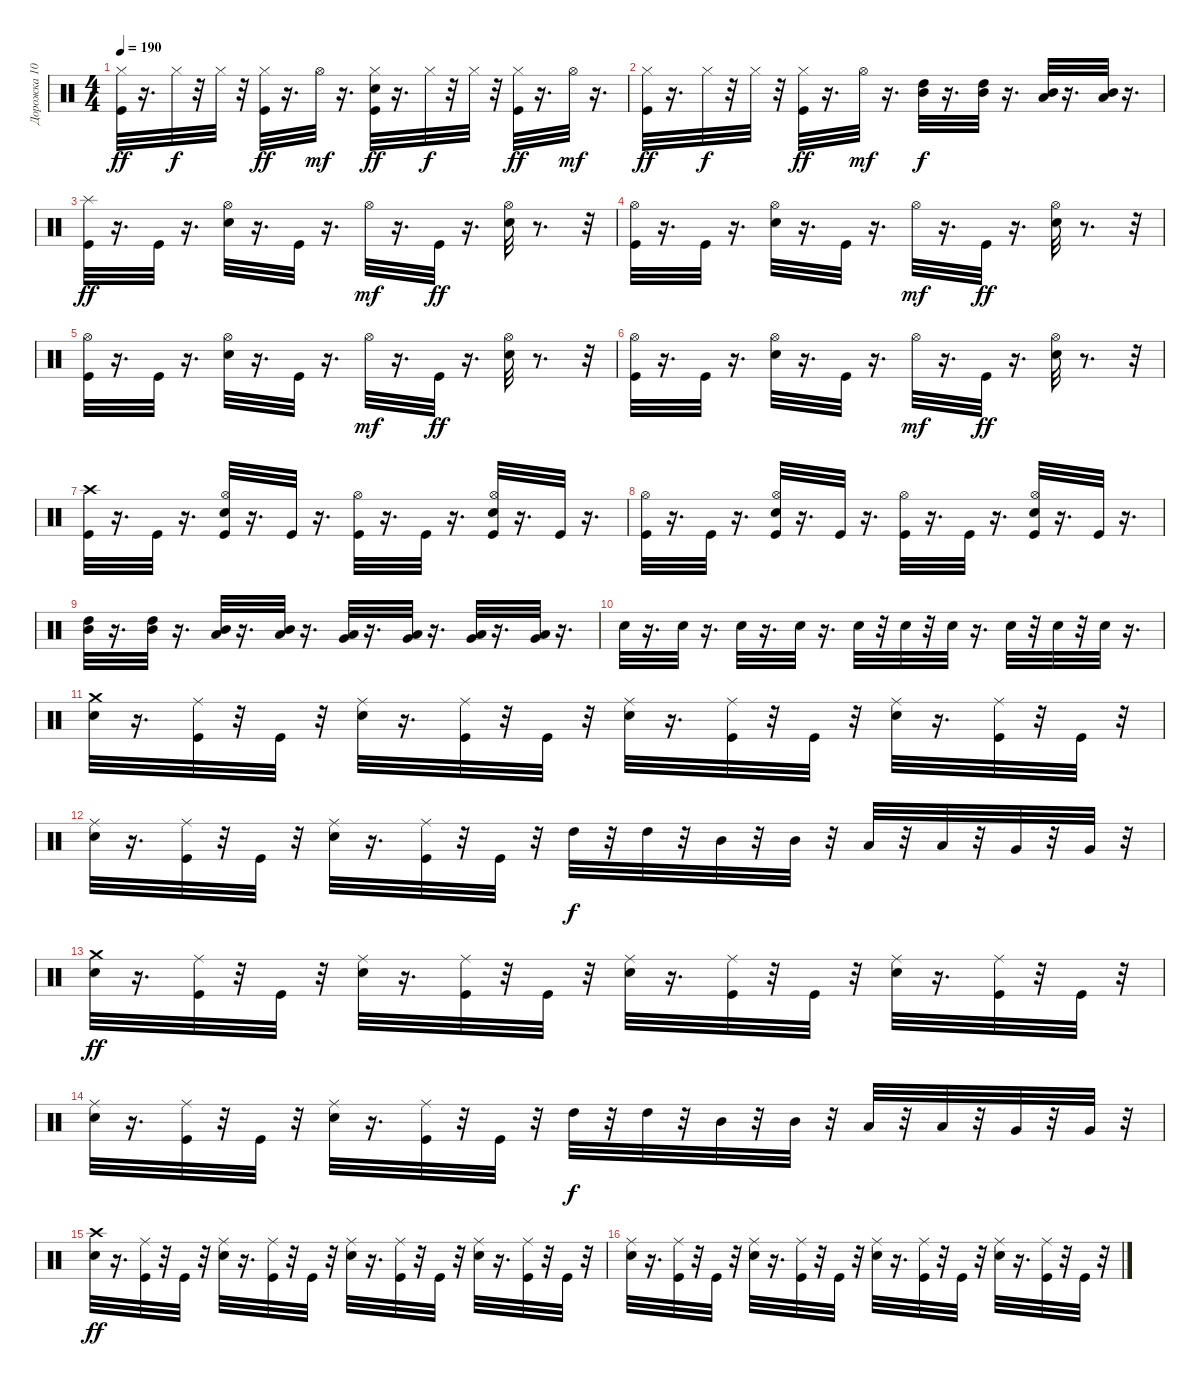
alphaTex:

\track ("Дорожка 10" "Дорожка 10") {instrument percussion}
\staff {score}
\articulation defaults
\ts (4 4)
\tempo 190
\clef neutral
\ks c
("Hi-Hat (closed)" "Kick (hit)").32{dy ff} r.16{d} "Hi-Hat (closed)".32{dy f} r.32 "Hi-Hat (closed)".32 r.32 ("Hi-Hat (closed)" "Kick (hit)").32{dy ff} r.16{d} "Hi-Hat (open)".32{dy mf} r.16{d} ("Snare (hit) 2" "Hi-Hat (closed)" "Kick (hit)").32{dy ff} r.16{d} "Hi-Hat (closed)".32{dy f} r.32 "Hi-Hat (closed)".32 r.32 ("Hi-Hat (closed)" "Kick (hit)").32{dy ff} r.16{d} "Hi-Hat (open)".32{dy mf} r.16{d} |
("Hi-Hat (closed)" "Kick (hit)").32{dy ff} r.16{d} "Hi-Hat (closed)".32{dy f} r.32 "Hi-Hat (closed)".32 r.32 ("Kick (hit)" "Hi-Hat (closed)").32{dy ff} r.16{d} "Hi-Hat (open)".32{dy mf} r.16{d} ("High Tom (hit)" "Mid Tom (hit)").32{dy f} r.16{d} ("Mid Tom (hit)" "High Tom (hit)").32 r.16{d} ("Low Tom (hit)" "Mid Tom (hit)").32 r.16{d} ("Low Tom (hit)" "Mid Tom (hit)").32 r.16{d} |
("Splash (hit)" "Kick (hit)").32{dy ff} r.16{d} "Kick (hit)".32 r.16{d} ("Hi-Hat (open)" "Snare (hit) 2").32 r.16{d} "Kick (hit)".32 r.16{d} "Hi-Hat (open)".32{dy mf} r.16{d} "Kick (hit)".32{dy ff} r.16{d} ("Hi-Hat (open)" "Snare (hit) 2").32 r.8{d} r.32 |
("Hi-Hat (open)" "Kick (hit)").32 r.16{d} "Kick (hit)".32 r.16{d} ("Hi-Hat (open)" "Snare (hit) 2").32 r.16{d} "Kick (hit)".32 r.16{d} "Hi-Hat (open)".32{dy mf} r.16{d} "Kick (hit)".32{dy ff} r.16{d} ("Hi-Hat (open)" "Snare (hit) 2").32 r.8{d} r.32 |
("Hi-Hat (open)" "Kick (hit)").32 r.16{d} "Kick (hit)".32 r.16{d} ("Hi-Hat (open)" "Snare (hit) 2").32 r.16{d} "Kick (hit)".32 r.16{d} "Hi-Hat (open)".32{dy mf} r.16{d} "Kick (hit)".32{dy ff} r.16{d} ("Hi-Hat (open)" "Snare (hit) 2").32 r.8{d} r.32 |
("Hi-Hat (open)" "Kick (hit)").32 r.16{d} "Kick (hit)".32 r.16{d} ("Hi-Hat (open)" "Snare (hit) 2").32 r.16{d} "Kick (hit)".32 r.16{d} "Hi-Hat (open)".32{dy mf} r.16{d} "Kick (hit)".32{dy ff} r.16{d} ("Hi-Hat (open)" "Snare (hit) 2").32 r.8{d} r.32 |
("Crash high (hit)" "Kick (hit)").32 r.16{d} "Kick (hit)".32 r.16{d} ("Hi-Hat (open)" "Kick (hit)" "Snare (hit) 2").32 r.16{d} "Kick (hit)".32 r.16{d} ("Hi-Hat (open)" "Kick (hit)").32 r.16{d} "Kick (hit)".32 r.16{d} ("Hi-Hat (open)" "Snare (hit) 2" "Kick (hit)").32 r.16{d} "Kick (hit)".32 r.16{d} |
("Hi-Hat (open)" "Kick (hit)").32 r.16{d} "Kick (hit)".32 r.16{d} ("Hi-Hat (open)" "Snare (hit) 2" "Kick (hit)").32 r.16{d} "Kick (hit)".32 r.16{d} ("Hi-Hat (open)" "Kick (hit)").32 r.16{d} "Kick (hit)".32 r.16{d} ("Hi-Hat (open)" "Snare (hit) 2" "Kick (hit)").32 r.16{d} "Kick (hit)".32 r.16{d} |
("Mid Tom (hit)" "High Tom (hit)").32 r.16{d} ("Mid Tom (hit)" "High Tom (hit)").32 r.16{d} ("Low Tom (hit)" "Mid Tom (hit)").32 r.16{d} ("Mid Tom (hit)" "Low Tom (hit)").32 r.16{d} ("Very Low Tom (hit)" "Low Tom (hit)").32 r.16{d} ("Very Low Tom (hit)" "Low Tom (hit)").32 r.16{d} ("Very Low Tom (hit)" "Low Tom (hit)").32 r.16{d} ("Very Low Tom (hit)" "Low Tom (hit)").32 r.16{d} |
"Snare (hit) 2".32 r.16{d} "Snare (hit) 2".32 r.16{d} "Snare (hit) 2".32 r.16{d} "Snare (hit) 2".32 r.16{d} "Snare (hit) 2".32 r.32 "Snare (hit) 2".32 r.32 "Snare (hit) 2".32 r.16{d} "Snare (hit) 2".32 r.32 "Snare (hit) 2".32 r.32 "Snare (hit) 2".32 r.16{d} |
("Crash medium (hit)" "Snare (hit) 2").32 r.16{d} ("Ride (middle)" "Kick (hit)").32 r.32 "Kick (hit)".32 r.32 ("Ride (middle)" "Snare (hit) 2").32 r.16{d} ("Ride (middle)" "Kick (hit)").32 r.32 "Kick (hit)".32 r.32 ("Ride (middle)" "Snare (hit) 2").32 r.16{d} ("Ride (middle)" "Kick (hit)").32 r.32 "Kick (hit)".32 r.32 ("Ride (middle)" "Snare (hit) 2").32 r.16{d} ("Ride (middle)" "Kick (hit)").32 r.32 "Kick (hit)".32 r.32 |
("Ride (middle)" "Snare (hit) 2").32 r.16{d} ("Ride (middle)" "Kick (hit)").32 r.32 "Kick (hit)".32 r.32 ("Ride (middle)" "Snare (hit) 2").32 r.16{d} ("Ride (middle)" "Kick (hit)").32 r.32 "Kick (hit)".32 r.32 "High Tom (hit)".32{dy f} r.32 "High Tom (hit)".32 r.32 "Mid Tom (hit)".32 r.32 "Mid Tom (hit)".32 r.32 "Low Tom (hit)".32 r.32 "Low Tom (hit)".32 r.32 "Very Low Tom (hit)".32 r.32 "Very Low Tom (hit)".32 r.32 |
("Crash medium (hit)" "Snare (hit) 2").32{dy ff} r.16{d} ("Ride (middle)" "Kick (hit)").32 r.32 "Kick (hit)".32 r.32 ("Ride (middle)" "Snare (hit) 2").32 r.16{d} ("Ride (middle)" "Kick (hit)").32 r.32 "Kick (hit)".32 r.32 ("Ride (middle)" "Snare (hit) 2").32 r.16{d} ("Ride (middle)" "Kick (hit)").32 r.32 "Kick (hit)".32 r.32 ("Ride (middle)" "Snare (hit) 2").32 r.16{d} ("Ride (middle)" "Kick (hit)").32 r.32 "Kick (hit)".32 r.32 |
("Ride (middle)" "Snare (hit) 2").32 r.16{d} ("Ride (middle)" "Kick (hit)").32 r.32 "Kick (hit)".32 r.32 ("Ride (middle)" "Snare (hit) 2").32 r.16{d} ("Ride (middle)" "Kick (hit)").32 r.32 "Kick (hit)".32 r.32 "High Tom (hit)".32{dy f} r.32 "High Tom (hit)".32 r.32 "Mid Tom (hit)".32 r.32 "Mid Tom (hit)".32 r.32 "Low Tom (hit)".32 r.32 "Low Tom (hit)".32 r.32 "Very Low Tom (hit)".32 r.32 "Very Low Tom (hit)".32 r.32 |
("Snare (hit) 2" "Crash high (hit)").32{dy ff} r.16{d} ("Ride (middle)" "Kick (hit)").32 r.32 "Kick (hit)".32 r.32 ("Ride (middle)" "Snare (hit) 2").32 r.16{d} ("Ride (middle)" "Kick (hit)").32 r.32 "Kick (hit)".32 r.32 ("Ride (middle)" "Snare (hit) 2").32 r.16{d} ("Kick (hit)" "Ride (middle)").32 r.32 "Kick (hit)".32 r.32 ("Ride (middle)" "Snare (hit) 2").32 r.16{d} ("Ride (middle)" "Kick (hit)").32 r.32 "Kick (hit)".32 r.32 |
("Snare (hit) 2" "Ride (middle)").32 r.16{d} ("Ride (middle)" "Kick (hit)").32 r.32 "Kick (hit)".32 r.32 ("Ride (middle)" "Snare (hit) 2").32 r.16{d} ("Ride (middle)" "Kick (hit)").32 r.32 "Kick (hit)".32 r.32 ("Ride (middle)" "Snare (hit) 2").32 r.16{d} ("Ride (middle)" "Kick (hit)").32 r.32 "Kick (hit)".32 r.32 ("Ride (middle)" "Snare (hit) 2").32 r.16{d} ("Ride (middle)" "Kick (hit)").32 r.32 "Kick (hit)".32 r.32
